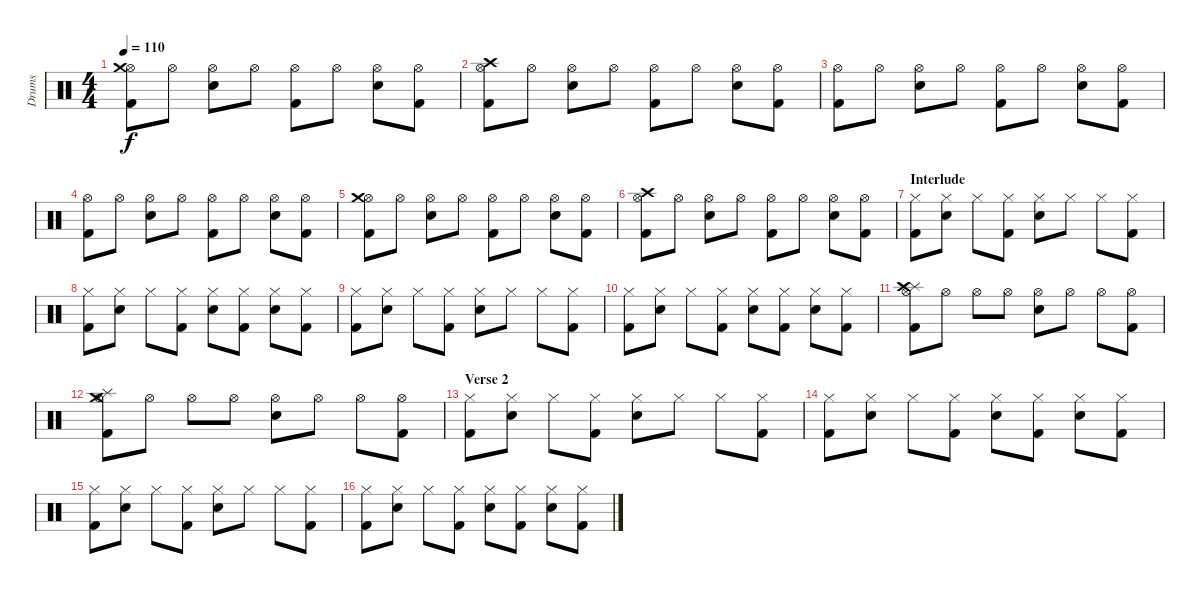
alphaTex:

\track ("Drums" "Drums") {instrument percussion}
\staff {score}
\articulation defaults
\ts (4 4)
\tempo 110
\clef neutral
\ks c
("Hi-Hat (open)" "Crash medium (hit)" "Kick (hit) 2").8{dy f} "Hi-Hat (open)".8 ("Hi-Hat (open)" "Snare (hit) 2").8 "Hi-Hat (open)".8 ("Hi-Hat (open)" "Kick (hit) 2").8 "Hi-Hat (open)".8 ("Hi-Hat (open)" "Snare (hit) 2").8 ("Hi-Hat (open)" "Kick (hit) 2").8 |
("Hi-Hat (open)" "Crash high (hit)" "Kick (hit) 2").8 "Hi-Hat (open)".8 ("Hi-Hat (open)" "Snare (hit) 2").8 "Hi-Hat (open)".8 ("Hi-Hat (open)" "Kick (hit) 2").8 "Hi-Hat (open)".8 ("Hi-Hat (open)" "Snare (hit) 2").8 ("Hi-Hat (open)" "Kick (hit) 2").8 |
("Hi-Hat (open)" "Kick (hit) 2").8 "Hi-Hat (open)".8 ("Hi-Hat (open)" "Snare (hit) 2").8 "Hi-Hat (open)".8 ("Hi-Hat (open)" "Kick (hit) 2").8 "Hi-Hat (open)".8 ("Hi-Hat (open)" "Snare (hit) 2").8 ("Hi-Hat (open)" "Kick (hit) 2").8 |
("Hi-Hat (open)" "Kick (hit) 2").8 "Hi-Hat (open)".8 ("Hi-Hat (open)" "Snare (hit) 2").8 "Hi-Hat (open)".8 ("Hi-Hat (open)" "Kick (hit) 2").8 "Hi-Hat (open)".8 ("Hi-Hat (open)" "Snare (hit) 2").8 ("Hi-Hat (open)" "Kick (hit) 2").8 |
("Hi-Hat (open)" "Crash medium (hit)" "Kick (hit) 2").8 "Hi-Hat (open)".8 ("Hi-Hat (open)" "Snare (hit) 2").8 "Hi-Hat (open)".8 ("Hi-Hat (open)" "Kick (hit) 2").8 "Hi-Hat (open)".8 ("Hi-Hat (open)" "Snare (hit) 2").8 ("Hi-Hat (open)" "Kick (hit) 2").8 |
("Hi-Hat (open)" "Crash high (hit)" "Kick (hit) 2").8 "Hi-Hat (open)".8 ("Hi-Hat (open)" "Snare (hit) 2").8 "Hi-Hat (open)".8 ("Hi-Hat (open)" "Kick (hit) 2").8 "Hi-Hat (open)".8 ("Hi-Hat (open)" "Snare (hit) 2").8 ("Hi-Hat (open)" "Kick (hit) 2").8 |
\section ("" "Interlude")
("Hi-Hat (closed)" "Kick (hit) 2").8 ("Hi-Hat (closed)" "Snare (hit) 2").8 "Hi-Hat (closed)".8 ("Hi-Hat (closed)" "Kick (hit) 2").8 ("Hi-Hat (closed)" "Snare (hit) 2").8 "Hi-Hat (closed)".8 "Hi-Hat (closed)".8 ("Hi-Hat (closed)" "Kick (hit) 2").8 |
("Hi-Hat (closed)" "Kick (hit) 2").8 ("Hi-Hat (closed)" "Snare (hit) 2").8 "Hi-Hat (closed)".8 ("Hi-Hat (closed)" "Kick (hit) 2").8 ("Hi-Hat (closed)" "Snare (hit) 2").8 ("Hi-Hat (closed)" "Kick (hit) 2").8 ("Hi-Hat (closed)" "Snare (hit) 2").8 ("Hi-Hat (closed)" "Kick (hit) 2").8 |
("Hi-Hat (closed)" "Kick (hit) 2").8 ("Hi-Hat (closed)" "Snare (hit) 2").8 "Hi-Hat (closed)".8 ("Hi-Hat (closed)" "Kick (hit) 2").8 ("Hi-Hat (closed)" "Snare (hit) 2").8 "Hi-Hat (closed)".8 "Hi-Hat (closed)".8 ("Hi-Hat (closed)" "Kick (hit) 2").8 |
("Hi-Hat (closed)" "Kick (hit) 2").8 ("Hi-Hat (closed)" "Snare (hit) 2").8 "Hi-Hat (closed)".8 ("Hi-Hat (closed)" "Kick (hit) 2").8 ("Hi-Hat (closed)" "Snare (hit) 2").8 ("Hi-Hat (closed)" "Kick (hit) 2").8 ("Hi-Hat (closed)" "Snare (hit) 2").8 ("Hi-Hat (closed)" "Kick (hit) 2").8 |
("Hi-Hat (open)" "Splash (hit)" "Crash high (hit)" "Kick (hit) 2").8 "Hi-Hat (open)".8 "Hi-Hat (open)".8 "Hi-Hat (open)".8 ("Hi-Hat (open)" "Snare (hit) 2").8 "Hi-Hat (open)".8 "Hi-Hat (open)".8 ("Hi-Hat (open)" "Kick (hit) 2").8 |
("Hi-Hat (open)" "Splash (hit)" "Crash medium (hit)" "Kick (hit) 2").8 "Hi-Hat (open)".8 "Hi-Hat (open)".8 "Hi-Hat (open)".8 ("Hi-Hat (open)" "Snare (hit) 2").8 "Hi-Hat (open)".8 "Hi-Hat (open)".8 ("Hi-Hat (open)" "Kick (hit) 2").8 |
\section ("" "Verse 2")
("Hi-Hat (closed)" "Kick (hit) 2").8 ("Hi-Hat (closed)" "Snare (hit) 2").8 "Hi-Hat (closed)".8 ("Hi-Hat (closed)" "Kick (hit) 2").8 ("Hi-Hat (closed)" "Snare (hit) 2").8 "Hi-Hat (closed)".8 "Hi-Hat (closed)".8 ("Hi-Hat (closed)" "Kick (hit) 2").8 |
("Hi-Hat (closed)" "Kick (hit) 2").8 ("Hi-Hat (closed)" "Snare (hit) 2").8 "Hi-Hat (closed)".8 ("Hi-Hat (closed)" "Kick (hit) 2").8 ("Hi-Hat (closed)" "Snare (hit) 2").8 ("Hi-Hat (closed)" "Kick (hit) 2").8 ("Hi-Hat (closed)" "Snare (hit) 2").8 ("Hi-Hat (closed)" "Kick (hit) 2").8 |
("Hi-Hat (closed)" "Kick (hit) 2").8 ("Hi-Hat (closed)" "Snare (hit) 2").8 "Hi-Hat (closed)".8 ("Hi-Hat (closed)" "Kick (hit) 2").8 ("Hi-Hat (closed)" "Snare (hit) 2").8 "Hi-Hat (closed)".8 "Hi-Hat (closed)".8 ("Hi-Hat (closed)" "Kick (hit) 2").8 |
("Hi-Hat (closed)" "Kick (hit) 2").8 ("Hi-Hat (closed)" "Snare (hit) 2").8 "Hi-Hat (closed)".8 ("Hi-Hat (closed)" "Kick (hit) 2").8 ("Hi-Hat (closed)" "Snare (hit) 2").8 ("Hi-Hat (closed)" "Kick (hit) 2").8 ("Hi-Hat (closed)" "Snare (hit) 2").8 ("Hi-Hat (closed)" "Kick (hit) 2").8
